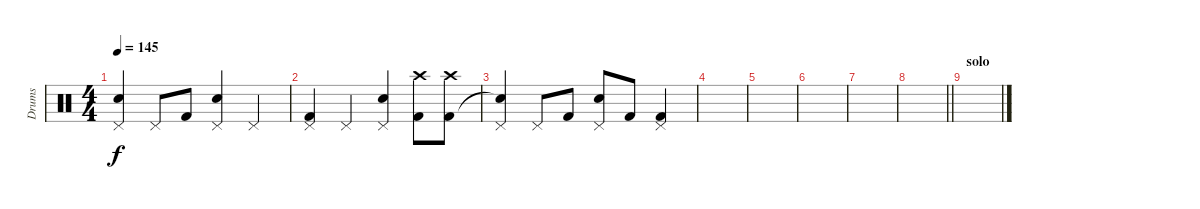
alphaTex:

\track ("Drums" "Drums") {instrument percussion}
\staff {score}
\articulation defaults
\ts (4 4)
\tempo 145
\clef neutral
\ks c
("Pedal Hi-Hat (hit)" "Snare (hit)"{t}).4{dy f} "Pedal Hi-Hat (hit)".8 "Kick (hit) 2".8 ("Pedal Hi-Hat (hit)" "Snare (hit) 2").4 "Pedal Hi-Hat (hit)".4 |
("Pedal Hi-Hat (hit)" "Kick (hit) 2").4 "Pedal Hi-Hat (hit)".4 ("Pedal Hi-Hat (hit)" "Snare (hit) 2").4 ("Crash high (hit)" "Kick (hit) 2").8 ("Crash high (hit)" "Kick (hit) 2").8 |
("Pedal Hi-Hat (hit)" "Snare (hit)"{t}).4 "Pedal Hi-Hat (hit)".8 "Kick (hit) 2".8 ("Pedal Hi-Hat (hit)" "Snare (hit) 2").8 "Kick (hit) 2".8 ("Pedal Hi-Hat (hit)" "Kick (hit) 2").4 |
|
|
|
|
\barLineRight lightlight
|
\section ("" "solo")
